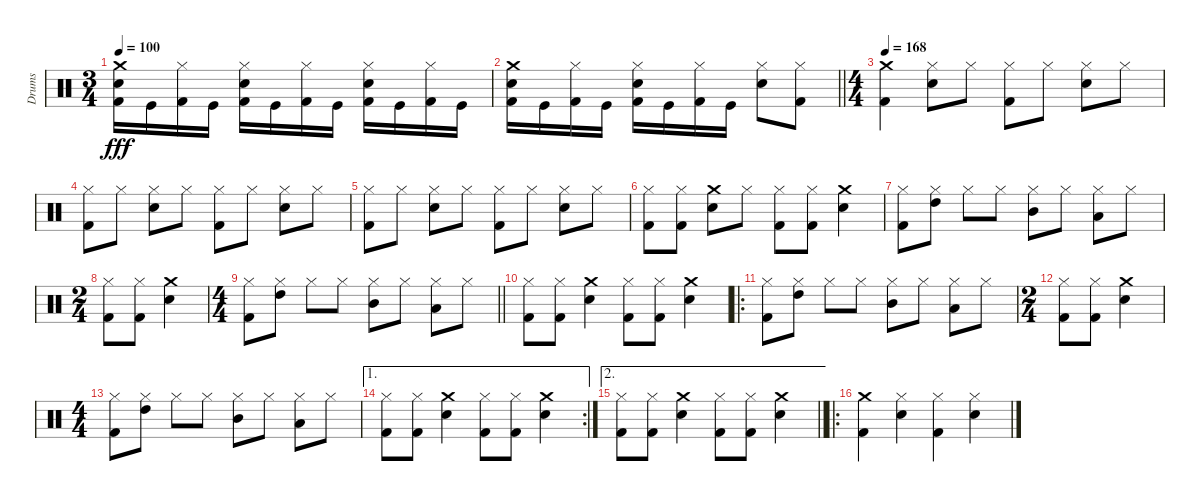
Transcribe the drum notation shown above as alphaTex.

\track ("Drums" "Drums") {instrument percussion}
\staff {score}
\articulation defaults
\ts (3 4)
\tempo 100
\clef neutral
\ks c
("Kick (hit) 2" "Snare (hit) 2" "Crash medium (hit)").16{dy fff} "Kick (hit)".16 ("Kick (hit) 2" "Hi-Hat (closed)").16 "Kick (hit)".16 ("Kick (hit) 2" "Snare (hit) 2" "Hi-Hat (closed)").16 "Kick (hit)".16 ("Kick (hit) 2" "Hi-Hat (closed)").16 "Kick (hit)".16 ("Kick (hit) 2" "Snare (hit) 2" "Hi-Hat (closed)").16 "Kick (hit)".16 ("Kick (hit) 2" "Hi-Hat (closed)").16 "Kick (hit)".16 |
\barLineRight lightlight
("Kick (hit) 2" "Snare (hit) 2" "Crash medium (hit)").16 "Kick (hit)".16 ("Kick (hit) 2" "Hi-Hat (closed)").16 "Kick (hit)".16 ("Kick (hit) 2" "Snare (hit) 2" "Hi-Hat (closed)").16 "Kick (hit)".16 ("Kick (hit) 2" "Hi-Hat (closed)").16 "Kick (hit)".16 ("Snare (hit) 2" "Hi-Hat (closed)").8 ("Kick (hit) 2" "Hi-Hat (closed)").8 |
\ts (4 4)
\tempo 168
("Crash medium (hit)" "Kick (hit) 2").4 ("Hi-Hat (closed)" "Snare (hit) 2").8 "Hi-Hat (closed)".8 ("Kick (hit) 2" "Hi-Hat (closed)").8 "Hi-Hat (closed)".8 ("Snare (hit) 2" "Hi-Hat (closed)").8 "Hi-Hat (closed)".8 |
("Kick (hit) 2" "Hi-Hat (closed)").8 "Hi-Hat (closed)".8 ("Snare (hit) 2" "Hi-Hat (closed)").8 "Hi-Hat (closed)".8 ("Kick (hit) 2" "Hi-Hat (closed)").8 "Hi-Hat (closed)".8 ("Snare (hit) 2" "Hi-Hat (closed)").8 "Hi-Hat (closed)".8 |
("Kick (hit) 2" "Hi-Hat (closed)").8 "Hi-Hat (closed)".8 ("Snare (hit) 2" "Hi-Hat (closed)").8 "Hi-Hat (closed)".8 ("Kick (hit) 2" "Hi-Hat (closed)").8 "Hi-Hat (closed)".8 ("Snare (hit) 2" "Hi-Hat (closed)").8 "Hi-Hat (closed)".8 |
("Kick (hit) 2" "Hi-Hat (closed)").8 ("Kick (hit) 2" "Hi-Hat (closed)").8 ("Snare (hit) 2" "Crash medium (hit)").8 "Hi-Hat (closed)".8 ("Hi-Hat (closed)" "Kick (hit) 2").8 ("Hi-Hat (closed)" "Kick (hit) 2").8 ("Crash medium (hit)" "Snare (hit) 2").4 |
("Hi-Hat (closed)" "Kick (hit) 2").8 ("High Tom (hit)" "Hi-Hat (closed)").8{balance 16} "Hi-Hat (closed)".8{balance 8} "Hi-Hat (closed)".8 ("Mid Tom (hit)" "Hi-Hat (closed)").8 "Hi-Hat (closed)".8 ("Low Tom (hit)" "Hi-Hat (closed)").8{balance 0} "Hi-Hat (closed)".8{balance 8} |
\ts (2 4)
("Kick (hit) 2" "Hi-Hat (closed)").8 ("Kick (hit) 2" "Hi-Hat (closed)").8 ("Snare (hit) 2" "Crash medium (hit)").4 |
\ts (4 4)
\barLineRight lightlight
("Hi-Hat (closed)" "Kick (hit) 2").8 ("High Tom (hit)" "Hi-Hat (closed)").8{balance 16} "Hi-Hat (closed)".8{balance 8} "Hi-Hat (closed)".8 ("Mid Tom (hit)" "Hi-Hat (closed)").8 "Hi-Hat (closed)".8 ("Hi-Hat (closed)" "Low Tom (hit)").8{balance 0} "Hi-Hat (closed)".8{balance 8} |
("Hi-Hat (closed)" "Kick (hit) 2").8 ("Hi-Hat (closed)" "Kick (hit) 2").8 ("Snare (hit) 2" "Crash medium (hit)").4 ("Kick (hit) 2" "Hi-Hat (closed)").8 ("Kick (hit) 2" "Hi-Hat (closed)").8 ("Crash medium (hit)" "Snare (hit) 2").4 |
\ro
("Hi-Hat (closed)" "Kick (hit) 2").8 ("High Tom (hit)" "Hi-Hat (closed)").8{balance 16} "Hi-Hat (closed)".8{balance 8} "Hi-Hat (closed)".8 ("Mid Tom (hit)" "Hi-Hat (closed)").8 "Hi-Hat (closed)".8 ("Low Tom (hit)" "Hi-Hat (closed)").8{balance 0} "Hi-Hat (closed)".8{balance 8} |
\ts (2 4)
("Kick (hit) 2" "Hi-Hat (closed)").8 ("Kick (hit) 2" "Hi-Hat (closed)").8 ("Snare (hit) 2" "Crash medium (hit)").4 |
\ts (4 4)
("Hi-Hat (closed)" "Kick (hit) 2").8 ("High Tom (hit)" "Hi-Hat (closed)").8{balance 16} "Hi-Hat (closed)".8{balance 8} "Hi-Hat (closed)".8 ("Mid Tom (hit)" "Hi-Hat (closed)").8 "Hi-Hat (closed)".8 ("Hi-Hat (closed)" "Low Tom (hit)").8{balance 0} "Hi-Hat (closed)".8{balance 8} |
\ae 1
\rc 2
("Hi-Hat (closed)" "Kick (hit) 2").8 ("Hi-Hat (closed)" "Kick (hit) 2").8 ("Snare (hit) 2" "Crash medium (hit)").4 ("Kick (hit) 2" "Hi-Hat (closed)").8 ("Kick (hit) 2" "Hi-Hat (closed)").8 ("Crash medium (hit)" "Snare (hit) 2").4 |
\ae 2
\barLineRight lightlight
("Hi-Hat (closed)" "Kick (hit) 2").8 ("Hi-Hat (closed)" "Kick (hit) 2").8 ("Snare (hit) 2" "Crash medium (hit)").4 ("Kick (hit) 2" "Hi-Hat (closed)").8 ("Kick (hit) 2" "Hi-Hat (closed)").8 ("Crash medium (hit)" "Snare (hit) 2").4 |
\ro
("Kick (hit) 2" "Crash medium (hit)").4 ("Hi-Hat (closed)" "Snare (hit) 2").4 ("Hi-Hat (closed)" "Kick (hit) 2").4 ("Snare (hit) 2" "Hi-Hat (closed)").4
